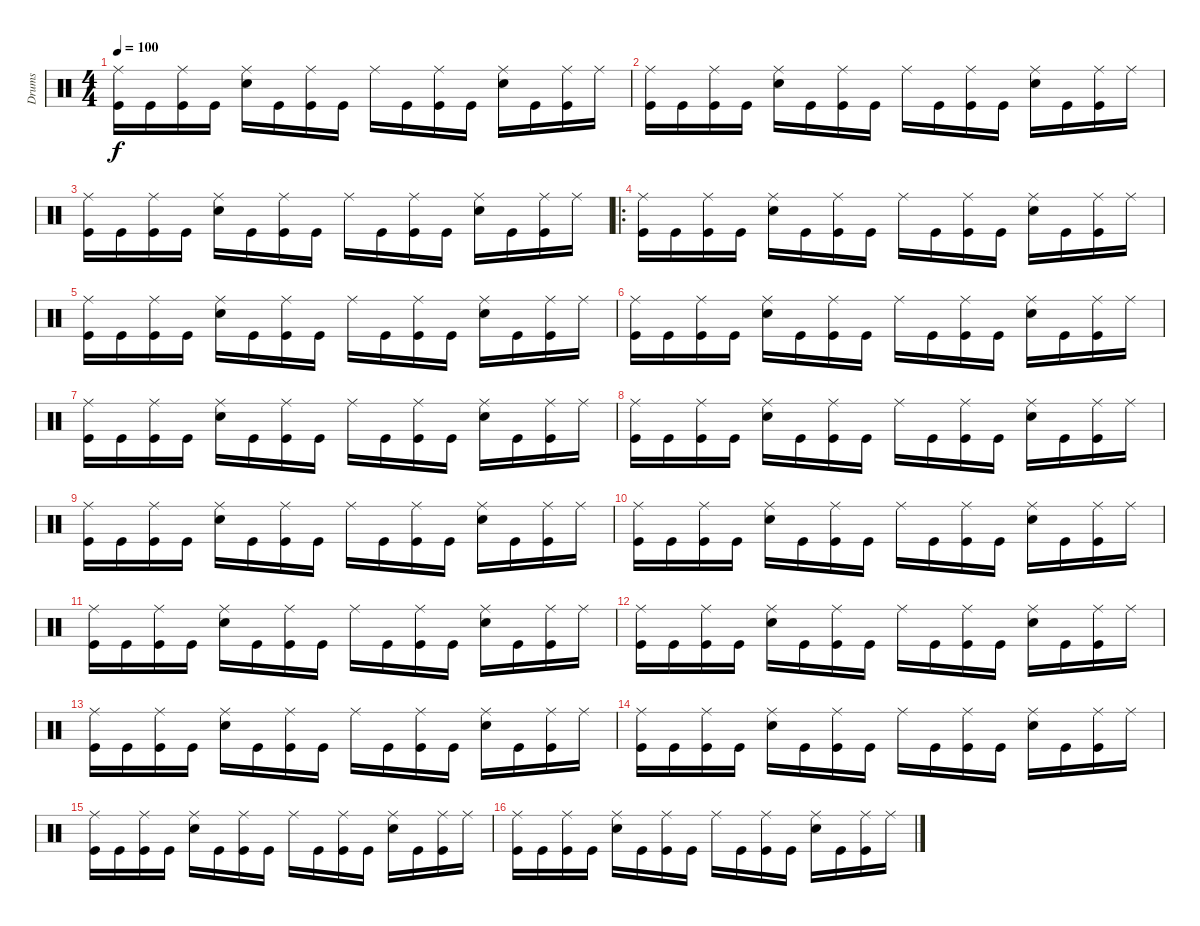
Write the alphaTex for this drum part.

\track ("Drums" "Drums") {instrument percussion}
\staff {score}
\articulation defaults
\ts (4 4)
\tempo 100
\clef neutral
\ks c
("Kick (hit)" "Ride (middle)").16{dy f} "Kick (hit)".16 ("Kick (hit)" "Ride (middle)").16 "Kick (hit)".16 ("Snare (hit) 2" "Ride (middle)").16 "Kick (hit)".16 ("Kick (hit)" "Ride (middle)").16 "Kick (hit)".16 "Ride (middle)".16 "Kick (hit)".16 ("Kick (hit)" "Ride (middle)").16 "Kick (hit)".16 ("Snare (hit) 2" "Ride (middle)").16 "Kick (hit)".16 ("Kick (hit)" "Ride (middle)").16 "Ride (middle)".16 |
("Kick (hit)" "Ride (middle)").16 "Kick (hit)".16 ("Kick (hit)" "Ride (middle)").16 "Kick (hit)".16 ("Snare (hit) 2" "Ride (middle)").16 "Kick (hit)".16 ("Kick (hit)" "Ride (middle)").16 "Kick (hit)".16 "Ride (middle)".16 "Kick (hit)".16 ("Kick (hit)" "Ride (middle)").16 "Kick (hit)".16 ("Snare (hit) 2" "Ride (middle)").16 "Kick (hit)".16 ("Kick (hit)" "Ride (middle)").16 "Ride (middle)".16 |
("Kick (hit)" "Ride (middle)").16 "Kick (hit)".16 ("Kick (hit)" "Ride (middle)").16 "Kick (hit)".16 ("Snare (hit) 2" "Ride (middle)").16 "Kick (hit)".16 ("Kick (hit)" "Ride (middle)").16 "Kick (hit)".16 "Ride (middle)".16 "Kick (hit)".16 ("Kick (hit)" "Ride (middle)").16 "Kick (hit)".16 ("Snare (hit) 2" "Ride (middle)").16 "Kick (hit)".16 ("Kick (hit)" "Ride (middle)").16 "Ride (middle)".16 |
\ro
("Kick (hit)" "Ride (middle)").16 "Kick (hit)".16 ("Kick (hit)" "Ride (middle)").16 "Kick (hit)".16 ("Snare (hit) 2" "Ride (middle)").16 "Kick (hit)".16 ("Kick (hit)" "Ride (middle)").16 "Kick (hit)".16 "Ride (middle)".16 "Kick (hit)".16 ("Kick (hit)" "Ride (middle)").16 "Kick (hit)".16 ("Snare (hit) 2" "Ride (middle)").16 "Kick (hit)".16 ("Kick (hit)" "Ride (middle)").16 "Ride (middle)".16 |
("Kick (hit)" "Ride (middle)").16 "Kick (hit)".16 ("Kick (hit)" "Ride (middle)").16 "Kick (hit)".16 ("Snare (hit) 2" "Ride (middle)").16 "Kick (hit)".16 ("Kick (hit)" "Ride (middle)").16 "Kick (hit)".16 "Ride (middle)".16 "Kick (hit)".16 ("Kick (hit)" "Ride (middle)").16 "Kick (hit)".16 ("Snare (hit) 2" "Ride (middle)").16 "Kick (hit)".16 ("Kick (hit)" "Ride (middle)").16 "Ride (middle)".16 |
("Kick (hit)" "Ride (middle)").16 "Kick (hit)".16 ("Kick (hit)" "Ride (middle)").16 "Kick (hit)".16 ("Snare (hit) 2" "Ride (middle)").16 "Kick (hit)".16 ("Kick (hit)" "Ride (middle)").16 "Kick (hit)".16 "Ride (middle)".16 "Kick (hit)".16 ("Kick (hit)" "Ride (middle)").16 "Kick (hit)".16 ("Snare (hit) 2" "Ride (middle)").16 "Kick (hit)".16 ("Kick (hit)" "Ride (middle)").16 "Ride (middle)".16 |
("Kick (hit)" "Ride (middle)").16 "Kick (hit)".16 ("Kick (hit)" "Ride (middle)").16 "Kick (hit)".16 ("Snare (hit) 2" "Ride (middle)").16 "Kick (hit)".16 ("Kick (hit)" "Ride (middle)").16 "Kick (hit)".16 "Ride (middle)".16 "Kick (hit)".16 ("Kick (hit)" "Ride (middle)").16 "Kick (hit)".16 ("Snare (hit) 2" "Ride (middle)").16 "Kick (hit)".16 ("Kick (hit)" "Ride (middle)").16 "Ride (middle)".16 |
("Kick (hit)" "Ride (middle)").16 "Kick (hit)".16 ("Kick (hit)" "Ride (middle)").16 "Kick (hit)".16 ("Snare (hit) 2" "Ride (middle)").16 "Kick (hit)".16 ("Kick (hit)" "Ride (middle)").16 "Kick (hit)".16 "Ride (middle)".16 "Kick (hit)".16 ("Kick (hit)" "Ride (middle)").16 "Kick (hit)".16 ("Snare (hit) 2" "Ride (middle)").16 "Kick (hit)".16 ("Kick (hit)" "Ride (middle)").16 "Ride (middle)".16 |
("Kick (hit)" "Ride (middle)").16 "Kick (hit)".16 ("Kick (hit)" "Ride (middle)").16 "Kick (hit)".16 ("Snare (hit) 2" "Ride (middle)").16 "Kick (hit)".16 ("Kick (hit)" "Ride (middle)").16 "Kick (hit)".16 "Ride (middle)".16 "Kick (hit)".16 ("Kick (hit)" "Ride (middle)").16 "Kick (hit)".16 ("Snare (hit) 2" "Ride (middle)").16 "Kick (hit)".16 ("Kick (hit)" "Ride (middle)").16 "Ride (middle)".16 |
("Kick (hit)" "Ride (middle)").16 "Kick (hit)".16 ("Kick (hit)" "Ride (middle)").16 "Kick (hit)".16 ("Snare (hit) 2" "Ride (middle)").16 "Kick (hit)".16 ("Kick (hit)" "Ride (middle)").16 "Kick (hit)".16 "Ride (middle)".16 "Kick (hit)".16 ("Kick (hit)" "Ride (middle)").16 "Kick (hit)".16 ("Snare (hit) 2" "Ride (middle)").16 "Kick (hit)".16 ("Kick (hit)" "Ride (middle)").16 "Ride (middle)".16 |
("Kick (hit)" "Ride (middle)").16 "Kick (hit)".16 ("Kick (hit)" "Ride (middle)").16 "Kick (hit)".16 ("Snare (hit) 2" "Ride (middle)").16 "Kick (hit)".16 ("Kick (hit)" "Ride (middle)").16 "Kick (hit)".16 "Ride (middle)".16 "Kick (hit)".16 ("Kick (hit)" "Ride (middle)").16 "Kick (hit)".16 ("Snare (hit) 2" "Ride (middle)").16 "Kick (hit)".16 ("Kick (hit)" "Ride (middle)").16 "Ride (middle)".16 |
("Kick (hit)" "Ride (middle)").16 "Kick (hit)".16 ("Kick (hit)" "Ride (middle)").16 "Kick (hit)".16 ("Snare (hit) 2" "Ride (middle)").16 "Kick (hit)".16 ("Kick (hit)" "Ride (middle)").16 "Kick (hit)".16 "Ride (middle)".16 "Kick (hit)".16 ("Kick (hit)" "Ride (middle)").16 "Kick (hit)".16 ("Snare (hit) 2" "Ride (middle)").16 "Kick (hit)".16 ("Kick (hit)" "Ride (middle)").16 "Ride (middle)".16 |
("Kick (hit)" "Ride (middle)").16 "Kick (hit)".16 ("Kick (hit)" "Ride (middle)").16 "Kick (hit)".16 ("Snare (hit) 2" "Ride (middle)").16 "Kick (hit)".16 ("Kick (hit)" "Ride (middle)").16 "Kick (hit)".16 "Ride (middle)".16 "Kick (hit)".16 ("Kick (hit)" "Ride (middle)").16 "Kick (hit)".16 ("Snare (hit) 2" "Ride (middle)").16 "Kick (hit)".16 ("Kick (hit)" "Ride (middle)").16 "Ride (middle)".16 |
("Kick (hit)" "Ride (middle)").16 "Kick (hit)".16 ("Kick (hit)" "Ride (middle)").16 "Kick (hit)".16 ("Snare (hit) 2" "Ride (middle)").16 "Kick (hit)".16 ("Kick (hit)" "Ride (middle)").16 "Kick (hit)".16 "Ride (middle)".16 "Kick (hit)".16 ("Kick (hit)" "Ride (middle)").16 "Kick (hit)".16 ("Snare (hit) 2" "Ride (middle)").16 "Kick (hit)".16 ("Kick (hit)" "Ride (middle)").16 "Ride (middle)".16 |
("Kick (hit)" "Ride (middle)").16 "Kick (hit)".16 ("Kick (hit)" "Ride (middle)").16 "Kick (hit)".16 ("Snare (hit) 2" "Ride (middle)").16 "Kick (hit)".16 ("Kick (hit)" "Ride (middle)").16 "Kick (hit)".16 "Ride (middle)".16 "Kick (hit)".16 ("Kick (hit)" "Ride (middle)").16 "Kick (hit)".16 ("Snare (hit) 2" "Ride (middle)").16 "Kick (hit)".16 ("Kick (hit)" "Ride (middle)").16 "Ride (middle)".16 |
("Kick (hit)" "Ride (middle)").16 "Kick (hit)".16 ("Kick (hit)" "Ride (middle)").16 "Kick (hit)".16 ("Snare (hit) 2" "Ride (middle)").16 "Kick (hit)".16 ("Kick (hit)" "Ride (middle)").16 "Kick (hit)".16 "Ride (middle)".16 "Kick (hit)".16 ("Kick (hit)" "Ride (middle)").16 "Kick (hit)".16 ("Snare (hit) 2" "Ride (middle)").16 "Kick (hit)".16 ("Kick (hit)" "Ride (middle)").16 "Ride (middle)".16
